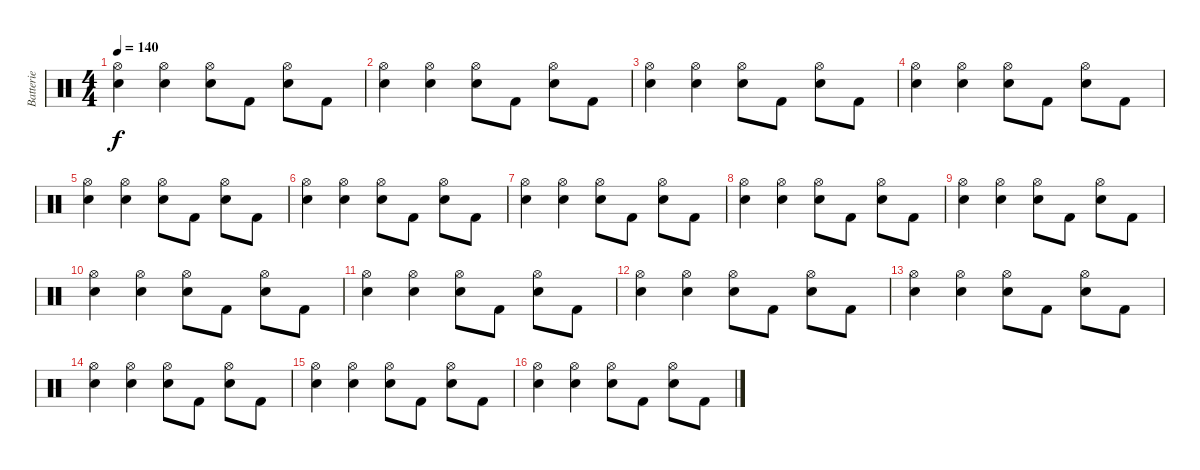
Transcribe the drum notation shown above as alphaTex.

\track ("Batterie" "Batterie") {instrument percussion}
\staff {score}
\articulation defaults
\ts (4 4)
\tempo 140
\clef neutral
\ks c
("Electric Snare (hit)" "Hi-Hat (open)").4{dy f} ("Electric Snare (hit)" "Hi-Hat (open)").4 ("Electric Snare (hit)" "Hi-Hat (open)").8 "Kick (hit) 2".8 ("Electric Snare (hit)" "Hi-Hat (open)").8 "Kick (hit) 2".8 |
("Electric Snare (hit)" "Hi-Hat (open)").4 ("Electric Snare (hit)" "Hi-Hat (open)").4 ("Electric Snare (hit)" "Hi-Hat (open)").8 "Kick (hit) 2".8 ("Electric Snare (hit)" "Hi-Hat (open)").8 "Kick (hit) 2".8 |
("Electric Snare (hit)" "Hi-Hat (open)").4 ("Electric Snare (hit)" "Hi-Hat (open)").4 ("Electric Snare (hit)" "Hi-Hat (open)").8 "Kick (hit) 2".8 ("Electric Snare (hit)" "Hi-Hat (open)").8 "Kick (hit) 2".8 |
("Electric Snare (hit)" "Hi-Hat (open)").4 ("Electric Snare (hit)" "Hi-Hat (open)").4 ("Electric Snare (hit)" "Hi-Hat (open)").8 "Kick (hit) 2".8 ("Electric Snare (hit)" "Hi-Hat (open)").8 "Kick (hit) 2".8 |
("Electric Snare (hit)" "Hi-Hat (open)").4 ("Electric Snare (hit)" "Hi-Hat (open)").4 ("Electric Snare (hit)" "Hi-Hat (open)").8 "Kick (hit) 2".8 ("Electric Snare (hit)" "Hi-Hat (open)").8 "Kick (hit) 2".8 |
("Electric Snare (hit)" "Hi-Hat (open)").4 ("Electric Snare (hit)" "Hi-Hat (open)").4 ("Electric Snare (hit)" "Hi-Hat (open)").8 "Kick (hit) 2".8 ("Electric Snare (hit)" "Hi-Hat (open)").8 "Kick (hit) 2".8 |
("Electric Snare (hit)" "Hi-Hat (open)").4 ("Electric Snare (hit)" "Hi-Hat (open)").4 ("Electric Snare (hit)" "Hi-Hat (open)").8 "Kick (hit) 2".8 ("Electric Snare (hit)" "Hi-Hat (open)").8 "Kick (hit) 2".8 |
("Electric Snare (hit)" "Hi-Hat (open)").4 ("Electric Snare (hit)" "Hi-Hat (open)").4 ("Electric Snare (hit)" "Hi-Hat (open)").8 "Kick (hit) 2".8 ("Electric Snare (hit)" "Hi-Hat (open)").8 "Kick (hit) 2".8 |
("Electric Snare (hit)" "Hi-Hat (open)").4 ("Electric Snare (hit)" "Hi-Hat (open)").4 ("Electric Snare (hit)" "Hi-Hat (open)").8 "Kick (hit) 2".8 ("Electric Snare (hit)" "Hi-Hat (open)").8 "Kick (hit) 2".8 |
("Electric Snare (hit)" "Hi-Hat (open)").4 ("Electric Snare (hit)" "Hi-Hat (open)").4 ("Electric Snare (hit)" "Hi-Hat (open)").8 "Kick (hit) 2".8 ("Electric Snare (hit)" "Hi-Hat (open)").8 "Kick (hit) 2".8 |
("Electric Snare (hit)" "Hi-Hat (open)").4 ("Electric Snare (hit)" "Hi-Hat (open)").4 ("Electric Snare (hit)" "Hi-Hat (open)").8 "Kick (hit) 2".8 ("Electric Snare (hit)" "Hi-Hat (open)").8 "Kick (hit) 2".8 |
("Electric Snare (hit)" "Hi-Hat (open)").4 ("Electric Snare (hit)" "Hi-Hat (open)").4 ("Electric Snare (hit)" "Hi-Hat (open)").8 "Kick (hit) 2".8 ("Electric Snare (hit)" "Hi-Hat (open)").8 "Kick (hit) 2".8 |
("Electric Snare (hit)" "Hi-Hat (open)").4 ("Electric Snare (hit)" "Hi-Hat (open)").4 ("Electric Snare (hit)" "Hi-Hat (open)").8 "Kick (hit) 2".8 ("Electric Snare (hit)" "Hi-Hat (open)").8 "Kick (hit) 2".8 |
("Electric Snare (hit)" "Hi-Hat (open)").4 ("Electric Snare (hit)" "Hi-Hat (open)").4 ("Electric Snare (hit)" "Hi-Hat (open)").8 "Kick (hit) 2".8 ("Electric Snare (hit)" "Hi-Hat (open)").8 "Kick (hit) 2".8 |
("Electric Snare (hit)" "Hi-Hat (open)").4 ("Electric Snare (hit)" "Hi-Hat (open)").4 ("Electric Snare (hit)" "Hi-Hat (open)").8 "Kick (hit) 2".8 ("Electric Snare (hit)" "Hi-Hat (open)").8 "Kick (hit) 2".8 |
("Electric Snare (hit)" "Hi-Hat (open)").4 ("Electric Snare (hit)" "Hi-Hat (open)").4 ("Electric Snare (hit)" "Hi-Hat (open)").8 "Kick (hit) 2".8 ("Electric Snare (hit)" "Hi-Hat (open)").8 "Kick (hit) 2".8
